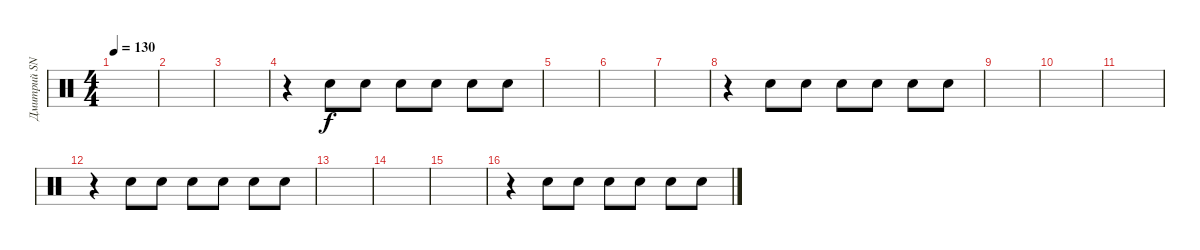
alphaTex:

\track ("Дмитрий SNAKE Хакимов (drum-machine)" "Дмитрий SN") {instrument percussion}
\staff {score}
\articulation defaults
\ts (4 4)
\tempo 130
\clef neutral
\ks c
|
|
|
r.4 "Electric Snare (hit)".8 "Electric Snare (hit)".8 "Electric Snare (hit)".8 "Electric Snare (hit)".8 "Electric Snare (hit)".8 "Electric Snare (hit)".8 |
|
|
|
r.4 "Electric Snare (hit)".8 "Electric Snare (hit)".8 "Electric Snare (hit)".8 "Electric Snare (hit)".8 "Electric Snare (hit)".8 "Electric Snare (hit)".8 |
|
|
|
r.4 "Electric Snare (hit)".8 "Electric Snare (hit)".8 "Electric Snare (hit)".8 "Electric Snare (hit)".8 "Electric Snare (hit)".8 "Electric Snare (hit)".8 |
|
|
|
r.4 "Electric Snare (hit)".8 "Electric Snare (hit)".8 "Electric Snare (hit)".8 "Electric Snare (hit)".8 "Electric Snare (hit)".8 "Electric Snare (hit)".8
